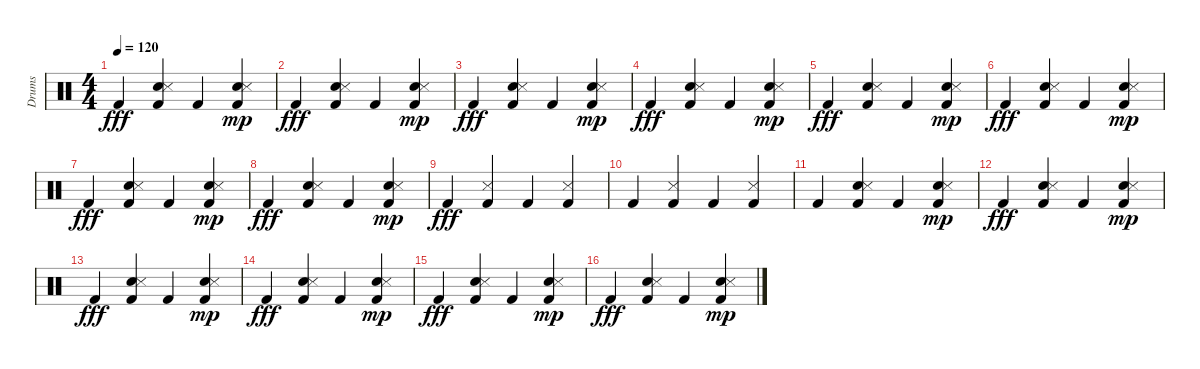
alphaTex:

\track ("Drums" "Drums") {instrument percussion}
\staff {score}
\articulation defaults
\ts (4 4)
\tempo 120
\clef neutral
\ks c "Kick (hit) 2".4{dy fff}
("Hand Clap (hit)" "Kick (hit) 2" "Snare (side stick) 3").4 "Kick (hit) 2".4 ("Kick (hit) 2" "Hand Clap (hit)" "Snare (side stick) 3").4{dy mp} |
"Kick (hit) 2".4{dy fff} ("Hand Clap (hit)" "Kick (hit) 2" "Snare (side stick) 3").4 "Kick (hit) 2".4 ("Kick (hit) 2" "Hand Clap (hit)" "Snare (side stick) 3").4{dy mp} |
"Kick (hit) 2".4{dy fff} ("Hand Clap (hit)" "Kick (hit) 2" "Snare (side stick) 3").4 "Kick (hit) 2".4 ("Kick (hit) 2" "Hand Clap (hit)" "Snare (side stick) 3").4{dy mp} |
"Kick (hit) 2".4{dy fff} ("Hand Clap (hit)" "Kick (hit) 2" "Snare (side stick) 3").4 "Kick (hit) 2".4 ("Kick (hit) 2" "Hand Clap (hit)" "Snare (side stick) 3").4{dy mp} |
"Kick (hit) 2".4{dy fff} ("Hand Clap (hit)" "Kick (hit) 2" "Snare (side stick) 3").4 "Kick (hit) 2".4 ("Kick (hit) 2" "Hand Clap (hit)" "Snare (side stick) 3").4{dy mp} |
"Kick (hit) 2".4{dy fff} ("Hand Clap (hit)" "Kick (hit) 2" "Snare (side stick) 3").4 "Kick (hit) 2".4 ("Kick (hit) 2" "Hand Clap (hit)" "Snare (side stick) 3").4{dy mp} |
"Kick (hit) 2".4{dy fff} ("Hand Clap (hit)" "Kick (hit) 2" "Snare (side stick) 3").4 "Kick (hit) 2".4 ("Kick (hit) 2" "Hand Clap (hit)" "Snare (side stick) 3").4{dy mp} |
"Kick (hit) 2".4{dy fff} ("Hand Clap (hit)" "Kick (hit) 2" "Snare (side stick) 3").4 "Kick (hit) 2".4 ("Kick (hit) 2" "Hand Clap (hit)" "Snare (side stick) 3").4{dy mp} |
"Kick (hit) 2".4{dy fff} ("Kick (hit) 2" "Snare (side stick) 3").4 "Kick (hit) 2".4 ("Kick (hit) 2" "Snare (side stick) 3").4 |
"Kick (hit) 2".4 ("Kick (hit) 2" "Snare (side stick) 3").4 "Kick (hit) 2".4 ("Kick (hit) 2" "Snare (side stick) 3").4 |
"Kick (hit) 2".4 ("Hand Clap (hit)" "Kick (hit) 2" "Snare (side stick) 3").4 "Kick (hit) 2".4 ("Kick (hit) 2" "Hand Clap (hit)" "Snare (side stick) 3").4{dy mp} |
"Kick (hit) 2".4{dy fff} ("Hand Clap (hit)" "Kick (hit) 2" "Snare (side stick) 3").4 "Kick (hit) 2".4 ("Kick (hit) 2" "Hand Clap (hit)" "Snare (side stick) 3").4{dy mp} |
"Kick (hit) 2".4{dy fff} ("Hand Clap (hit)" "Kick (hit) 2" "Snare (side stick) 3").4 "Kick (hit) 2".4 ("Kick (hit) 2" "Hand Clap (hit)" "Snare (side stick) 3").4{dy mp} |
"Kick (hit) 2".4{dy fff} ("Hand Clap (hit)" "Kick (hit) 2" "Snare (side stick) 3").4 "Kick (hit) 2".4 ("Kick (hit) 2" "Hand Clap (hit)" "Snare (side stick) 3").4{dy mp} |
"Kick (hit) 2".4{dy fff} ("Hand Clap (hit)" "Kick (hit) 2" "Snare (side stick) 3").4 "Kick (hit) 2".4 ("Kick (hit) 2" "Hand Clap (hit)" "Snare (side stick) 3").4{dy mp} |
"Kick (hit) 2".4{dy fff} ("Hand Clap (hit)" "Kick (hit) 2" "Snare (side stick) 3").4 "Kick (hit) 2".4 ("Kick (hit) 2" "Hand Clap (hit)" "Snare (side stick) 3").4{dy mp}
